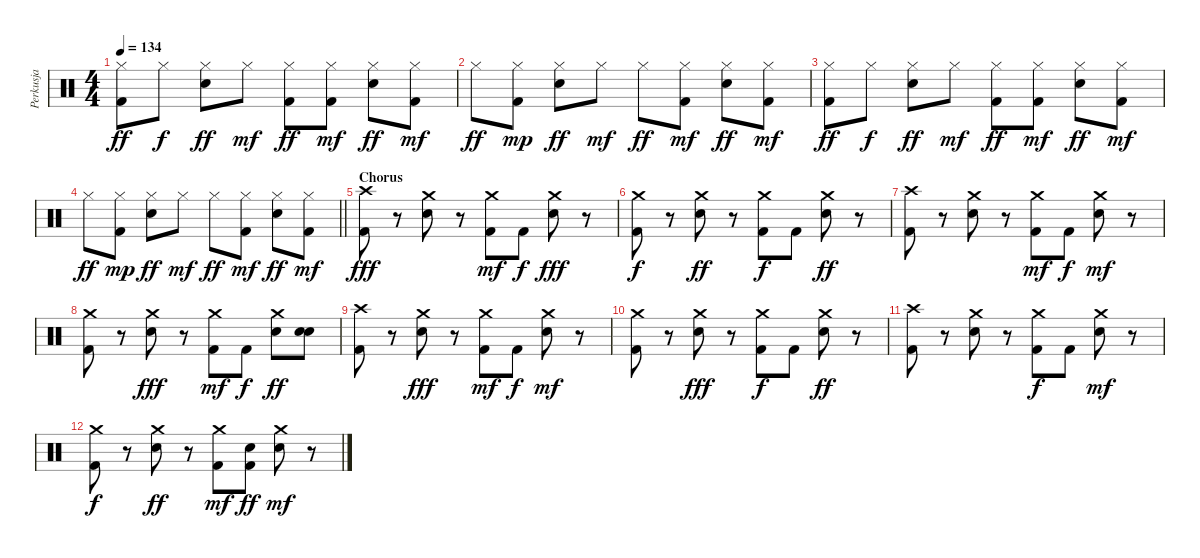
\track ("Perkusja" "Perkusja") {instrument percussion}
\staff {score}
\articulation defaults
\ts (4 4)
\tempo 134
\clef neutral
\ks c
("Kick (hit) 2" "Hi-Hat (closed)").8{dy ff} "Hi-Hat (closed)".8{dy f} ("Electric Snare (hit)" "Hi-Hat (closed)").8{dy ff} "Hi-Hat (closed)".8{dy mf} ("Hi-Hat (closed)" "Kick (hit) 2").8{dy ff} ("Hi-Hat (closed)" "Kick (hit) 2").8{dy mf} ("Hi-Hat (closed)" "Electric Snare (hit)").8{dy ff} ("Hi-Hat (closed)" "Kick (hit) 2").8{dy mf} |
"Hi-Hat (closed)".8{dy ff} ("Kick (hit) 2" "Hi-Hat (closed)").8{dy mp} ("Hi-Hat (closed)" "Electric Snare (hit)").8{dy ff} "Hi-Hat (closed)".8{dy mf} "Hi-Hat (closed)".8{dy ff} ("Kick (hit) 2" "Hi-Hat (closed)").8{dy mf} ("Electric Snare (hit)" "Hi-Hat (closed)").8{dy ff} ("Hi-Hat (closed)" "Kick (hit) 2").8{dy mf} |
("Hi-Hat (closed)" "Kick (hit) 2").8{dy ff} "Hi-Hat (closed)".8{dy f} ("Electric Snare (hit)" "Hi-Hat (closed)").8{dy ff} "Hi-Hat (closed)".8{dy mf} ("Hi-Hat (closed)" "Kick (hit) 2").8{dy ff} ("Hi-Hat (closed)" "Kick (hit) 2").8{dy mf} ("Electric Snare (hit)" "Hi-Hat (closed)").8{dy ff} ("Kick (hit) 2" "Hi-Hat (closed)").8{dy mf} |
\barLineRight lightlight "Hi-Hat (closed)".8{dy ff}
("Hi-Hat (closed)" "Kick (hit) 2").8{dy mp} ("Electric Snare (hit)" "Hi-Hat (closed)").8{dy ff} "Hi-Hat (closed)".8{dy mf} "Hi-Hat (closed)".8{dy ff} ("Kick (hit) 2" "Hi-Hat (closed)").8{dy mf} ("Hi-Hat (closed)" "Electric Snare (hit)").8{dy ff} ("Kick (hit) 2" "Hi-Hat (closed)").8{dy mf} |
\section ("" "Chorus")
("Kick (hit) 2" "Crash high (hit)").8{dy fff} r.8 ("Snare (hit) 2" "Crash medium (hit)").8 r.8 ("Crash medium (hit)" "Kick (hit) 2").8{dy mf} "Kick (hit) 2".8{dy f} ("Snare (hit) 2" "Crash medium (hit)").8{dy fff} r.8 |
("Kick (hit) 2" "Crash medium (hit)").8{dy f} r.8 ("Crash medium (hit)" "Snare (hit) 2").8{dy ff} r.8 ("Kick (hit) 2" "Crash medium (hit)").8{dy f} "Kick (hit) 2".8 ("Crash medium (hit)" "Snare (hit) 2").8{dy ff} r.8 |
("Kick (hit) 2" "Crash high (hit)").8 r.8 ("Crash medium (hit)" "Snare (hit) 2").8 r.8 ("Kick (hit) 2" "Crash medium (hit)").8{dy mf} "Kick (hit) 2".8{dy f} ("Snare (hit) 2" "Crash medium (hit)").8{dy mf} r.8 |
("Crash medium (hit)" "Kick (hit) 2").8 r.8 ("Crash medium (hit)" "Snare (hit) 2").8{dy fff} r.8 ("Kick (hit) 2" "Crash medium (hit)").8{dy mf} "Kick (hit) 2".8{dy f} ("Snare (hit) 2" "Crash medium (hit)").8{dy ff} ("Snare (hit) 2" "Snare (hit) 2").8 |
("Kick (hit) 2" "Crash high (hit)").8 r.8 ("Snare (hit) 2" "Crash medium (hit)").8{dy fff} r.8 ("Crash medium (hit)" "Kick (hit) 2").8{dy mf} "Kick (hit) 2".8{dy f} ("Snare (hit) 2" "Crash medium (hit)").8{dy mf} r.8 |
("Kick (hit) 2" "Crash medium (hit)").8 r.8 ("Crash medium (hit)" "Snare (hit) 2").8{dy fff} r.8 ("Crash medium (hit)" "Kick (hit) 2").8{dy f} "Kick (hit) 2".8 ("Crash medium (hit)" "Snare (hit) 2").8{dy ff} r.8 |
("Kick (hit) 2" "Crash high (hit)").8 r.8 ("Crash medium (hit)" "Snare (hit) 2").8 r.8 ("Crash medium (hit)" "Kick (hit) 2").8{dy f} "Kick (hit) 2".8 ("Snare (hit) 2" "Crash medium (hit)").8{dy mf} r.8 |
("Crash medium (hit)" "Kick (hit) 2").8{dy f} r.8 ("Crash medium (hit)" "Snare (hit) 2").8{dy ff} r.8 ("Kick (hit) 2" "Crash medium (hit)").8{dy mf} ("Snare (hit) 2" "Kick (hit) 2").8{dy ff} ("Snare (hit) 2" "Crash medium (hit)").8{dy mf} r.8
